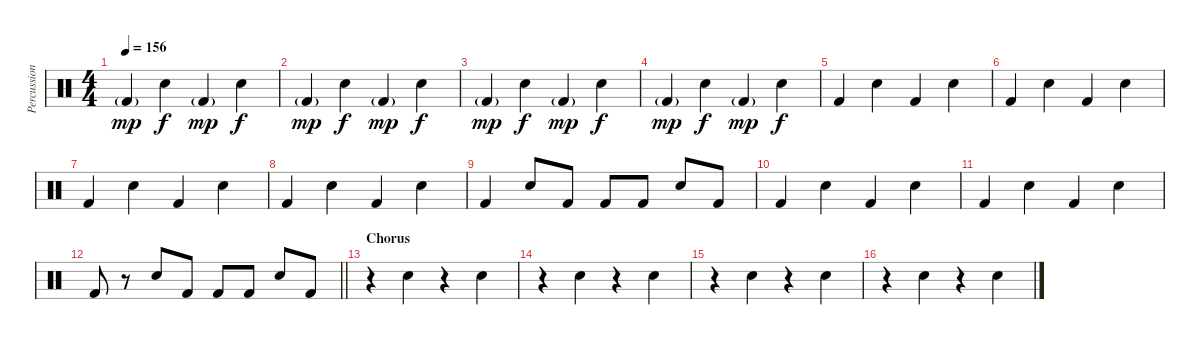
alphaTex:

\track ("Percussion" "Percussion") {instrument percussion}
\staff {score}
\articulation defaults
\ts (4 4)
\tempo 156
\clef neutral
\ks c "Kick (hit) 2"{g}.4{dy mp} "Hand Clap (hit)".4{dy f} "Kick (hit) 2"{g}.4{dy mp} "Hand Clap (hit)".4{dy f}
|
"Kick (hit) 2"{g}.4{dy mp} "Hand Clap (hit)".4{dy f} "Kick (hit) 2"{g}.4{dy mp} "Hand Clap (hit)".4{dy f} |
"Kick (hit) 2"{g}.4{dy mp} "Hand Clap (hit)".4{dy f} "Kick (hit) 2"{g}.4{dy mp} "Hand Clap (hit)".4{dy f} |
"Kick (hit) 2"{g}.4{dy mp} "Hand Clap (hit)".4{dy f} "Kick (hit) 2"{g}.4{dy mp} "Hand Clap (hit)".4{dy f} |
"Kick (hit) 2".4 "Hand Clap (hit)".4 "Kick (hit) 2".4 "Hand Clap (hit)".4 |
"Kick (hit) 2".4 "Hand Clap (hit)".4 "Kick (hit) 2".4 "Hand Clap (hit)".4 |
"Kick (hit) 2".4 "Hand Clap (hit)".4 "Kick (hit) 2".4 "Hand Clap (hit)".4 |
"Kick (hit) 2".4 "Hand Clap (hit)".4 "Kick (hit) 2".4 "Hand Clap (hit)".4 |
"Kick (hit) 2".4 "Hand Clap (hit)".8 "Kick (hit) 2".8 "Kick (hit) 2".8 "Kick (hit) 2".8 "Hand Clap (hit)".8 "Kick (hit) 2".8 |
"Kick (hit) 2".4 "Hand Clap (hit)".4 "Kick (hit) 2".4 "Hand Clap (hit)".4 |
"Kick (hit) 2".4 "Hand Clap (hit)".4 "Kick (hit) 2".4 "Hand Clap (hit)".4 |
\barLineRight lightlight "Kick (hit) 2".8
r.8 "Electric Snare (hit)".8 "Kick (hit) 2".8 "Kick (hit) 2".8 "Kick (hit) 2".8 "Electric Snare (hit)".8 "Kick (hit) 2".8 |
\section ("" "Chorus")
r.4 "Hand Clap (hit)".4 r.4 "Hand Clap (hit)".4 |
r.4 "Hand Clap (hit)".4 r.4 "Hand Clap (hit)".4 |
r.4 "Hand Clap (hit)".4 r.4 "Hand Clap (hit)".4 |
r.4 "Hand Clap (hit)".4 r.4 "Hand Clap (hit)".4
